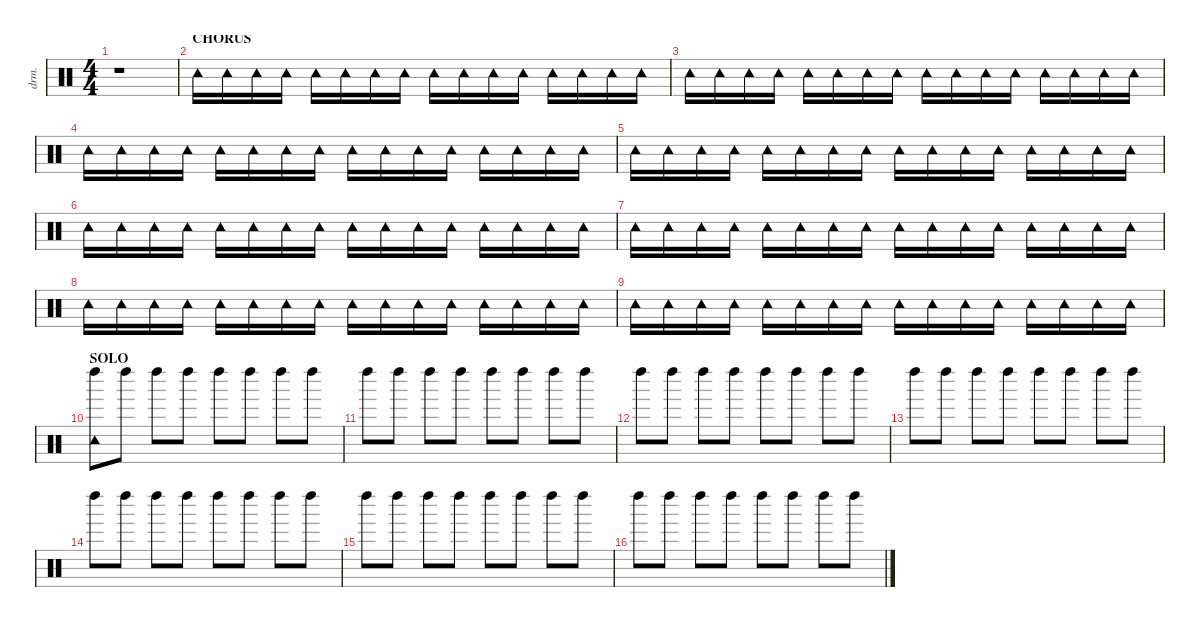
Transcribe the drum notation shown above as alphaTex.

\defaultSystemsLayout 4
\hideDynamics
\bracketExtendMode nobrackets
\otherSystemsTrackNameOrientation horizontal
\track ("Percussion" "drm.") {defaultSystemsLayout 8 solo instrument percussion}
\staff {score}
\articulation defaults
\ts (4 4)
\tempo (128 hide)
\clef neutral
\ks c
r.1{dy fff beam Down} |
\section ("" "CHORUS")
"Tambourine (hit)".16{dy f beam Down} "Tambourine (hit)".16{beam Down} "Tambourine (hit)".16{beam Down} "Tambourine (hit)".16{beam Down} "Tambourine (hit)".16{dy fff beam Down} "Tambourine (hit)".16{dy f beam Down} "Tambourine (hit)".16{beam Down} "Tambourine (hit)".16{beam Down} "Tambourine (hit)".16{beam Down} "Tambourine (hit)".16{beam Down} "Tambourine (hit)".16{beam Down} "Tambourine (hit)".16{beam Down} "Tambourine (hit)".16{dy fff beam Down} "Tambourine (hit)".16{dy f beam Down} "Tambourine (hit)".16{beam Down} "Tambourine (hit)".16{beam Down} |
"Tambourine (hit)".16{beam Down} "Tambourine (hit)".16{beam Down} "Tambourine (hit)".16{beam Down} "Tambourine (hit)".16{beam Down} "Tambourine (hit)".16{dy fff beam Down} "Tambourine (hit)".16{dy f beam Down} "Tambourine (hit)".16{beam Down} "Tambourine (hit)".16{beam Down} "Tambourine (hit)".16{beam Down} "Tambourine (hit)".16{beam Down} "Tambourine (hit)".16{beam Down} "Tambourine (hit)".16{beam Down} "Tambourine (hit)".16{dy fff beam Down} "Tambourine (hit)".16{dy f beam Down} "Tambourine (hit)".16{beam Down} "Tambourine (hit)".16{beam Down} |
"Tambourine (hit)".16{beam Down} "Tambourine (hit)".16{beam Down} "Tambourine (hit)".16{beam Down} "Tambourine (hit)".16{beam Down} "Tambourine (hit)".16{dy fff beam Down} "Tambourine (hit)".16{dy f beam Down} "Tambourine (hit)".16{beam Down} "Tambourine (hit)".16{beam Down} "Tambourine (hit)".16{beam Down} "Tambourine (hit)".16{beam Down} "Tambourine (hit)".16{beam Down} "Tambourine (hit)".16{beam Down} "Tambourine (hit)".16{dy fff beam Down} "Tambourine (hit)".16{dy f beam Down} "Tambourine (hit)".16{beam Down} "Tambourine (hit)".16{beam Down} |
"Tambourine (hit)".16{beam Down} "Tambourine (hit)".16{beam Down} "Tambourine (hit)".16{beam Down} "Tambourine (hit)".16{beam Down} "Tambourine (hit)".16{dy fff beam Down} "Tambourine (hit)".16{dy f beam Down} "Tambourine (hit)".16{beam Down} "Tambourine (hit)".16{beam Down} "Tambourine (hit)".16{beam Down} "Tambourine (hit)".16{beam Down} "Tambourine (hit)".16{beam Down} "Tambourine (hit)".16{beam Down} "Tambourine (hit)".16{dy fff beam Down} "Tambourine (hit)".16{dy f beam Down} "Tambourine (hit)".16{beam Down} "Tambourine (hit)".16{beam Down} |
"Tambourine (hit)".16{beam Down} "Tambourine (hit)".16{beam Down} "Tambourine (hit)".16{beam Down} "Tambourine (hit)".16{beam Down} "Tambourine (hit)".16{dy fff beam Down} "Tambourine (hit)".16{dy f beam Down} "Tambourine (hit)".16{beam Down} "Tambourine (hit)".16{beam Down} "Tambourine (hit)".16{beam Down} "Tambourine (hit)".16{beam Down} "Tambourine (hit)".16{beam Down} "Tambourine (hit)".16{beam Down} "Tambourine (hit)".16{dy fff beam Down} "Tambourine (hit)".16{dy f beam Down} "Tambourine (hit)".16{beam Down} "Tambourine (hit)".16{beam Down} |
"Tambourine (hit)".16{beam Down} "Tambourine (hit)".16{beam Down} "Tambourine (hit)".16{beam Down} "Tambourine (hit)".16{beam Down} "Tambourine (hit)".16{dy fff beam Down} "Tambourine (hit)".16{dy f beam Down} "Tambourine (hit)".16{beam Down} "Tambourine (hit)".16{beam Down} "Tambourine (hit)".16{beam Down} "Tambourine (hit)".16{beam Down} "Tambourine (hit)".16{beam Down} "Tambourine (hit)".16{beam Down} "Tambourine (hit)".16{dy fff beam Down} "Tambourine (hit)".16{dy f beam Down} "Tambourine (hit)".16{beam Down} "Tambourine (hit)".16{beam Down} |
"Tambourine (hit)".16{beam Down} "Tambourine (hit)".16{beam Down} "Tambourine (hit)".16{beam Down} "Tambourine (hit)".16{beam Down} "Tambourine (hit)".16{dy fff beam Down} "Tambourine (hit)".16{dy f beam Down} "Tambourine (hit)".16{beam Down} "Tambourine (hit)".16{beam Down} "Tambourine (hit)".16{beam Down} "Tambourine (hit)".16{beam Down} "Tambourine (hit)".16{beam Down} "Tambourine (hit)".16{beam Down} "Tambourine (hit)".16{dy fff beam Down} "Tambourine (hit)".16{dy f beam Down} "Tambourine (hit)".16{beam Down} "Tambourine (hit)".16{beam Down} |
"Tambourine (hit)".16{beam Down} "Tambourine (hit)".16{beam Down} "Tambourine (hit)".16{beam Down} "Tambourine (hit)".16{beam Down} "Tambourine (hit)".16{dy fff beam Down} "Tambourine (hit)".16{dy f beam Down} "Tambourine (hit)".16{beam Down} "Tambourine (hit)".16{beam Down} "Tambourine (hit)".16{beam Down} "Tambourine (hit)".16{beam Down} "Tambourine (hit)".16{beam Down} "Tambourine (hit)".16{beam Down} "Tambourine (hit)".16{dy fff beam Down} "Tambourine (hit)".16{dy f beam Down} "Tambourine (hit)".16{beam Down} "Tambourine (hit)".16{beam Down} |
\section ("" "SOLO ")
\tempo 127
\tempo (127 hide)
("Left Maraca (hit)" "Tambourine (hit)").8{beam Down} "Left Maraca (hit)".8{beam Down} "Left Maraca (hit)".8{dy fff beam Down} "Left Maraca (hit)".8{dy f beam Down} "Left Maraca (hit)".8{beam Down} "Left Maraca (hit)".8{beam Down} "Left Maraca (hit)".8{dy fff beam Down} "Left Maraca (hit)".8{dy f beam Down} |
"Left Maraca (hit)".8{beam Down} "Left Maraca (hit)".8{beam Down} "Left Maraca (hit)".8{dy fff beam Down} "Left Maraca (hit)".8{dy f beam Down} "Left Maraca (hit)".8{beam Down} "Left Maraca (hit)".8{beam Down} "Left Maraca (hit)".8{dy fff beam Down} "Left Maraca (hit)".8{dy f beam Down} |
"Left Maraca (hit)".8{beam Down} "Left Maraca (hit)".8{beam Down} "Left Maraca (hit)".8{dy fff beam Down} "Left Maraca (hit)".8{dy f beam Down} "Left Maraca (hit)".8{beam Down} "Left Maraca (hit)".8{beam Down} "Left Maraca (hit)".8{dy fff beam Down} "Left Maraca (hit)".8{dy f beam Down} |
"Left Maraca (hit)".8{beam Down} "Left Maraca (hit)".8{beam Down} "Left Maraca (hit)".8{dy fff beam Down} "Left Maraca (hit)".8{dy f beam Down} "Left Maraca (hit)".8{beam Down} "Left Maraca (hit)".8{beam Down} "Left Maraca (hit)".8{dy fff beam Down} "Left Maraca (hit)".8{dy f beam Down} |
"Left Maraca (hit)".8{beam Down} "Left Maraca (hit)".8{beam Down} "Left Maraca (hit)".8{dy fff beam Down} "Left Maraca (hit)".8{dy f beam Down} "Left Maraca (hit)".8{beam Down} "Left Maraca (hit)".8{beam Down} "Left Maraca (hit)".8{dy fff beam Down} "Left Maraca (hit)".8{dy f beam Down} |
"Left Maraca (hit)".8{beam Down} "Left Maraca (hit)".8{beam Down} "Left Maraca (hit)".8{dy fff beam Down} "Left Maraca (hit)".8{dy f beam Down} "Left Maraca (hit)".8{beam Down} "Left Maraca (hit)".8{beam Down} "Left Maraca (hit)".8{dy fff beam Down} "Left Maraca (hit)".8{dy f beam Down} |
"Left Maraca (hit)".8{beam Down} "Left Maraca (hit)".8{beam Down} "Left Maraca (hit)".8{dy fff beam Down} "Left Maraca (hit)".8{dy f beam Down} "Left Maraca (hit)".8{beam Down} "Left Maraca (hit)".8{beam Down} "Left Maraca (hit)".8{dy fff beam Down} "Left Maraca (hit)".8{dy f beam Down}
